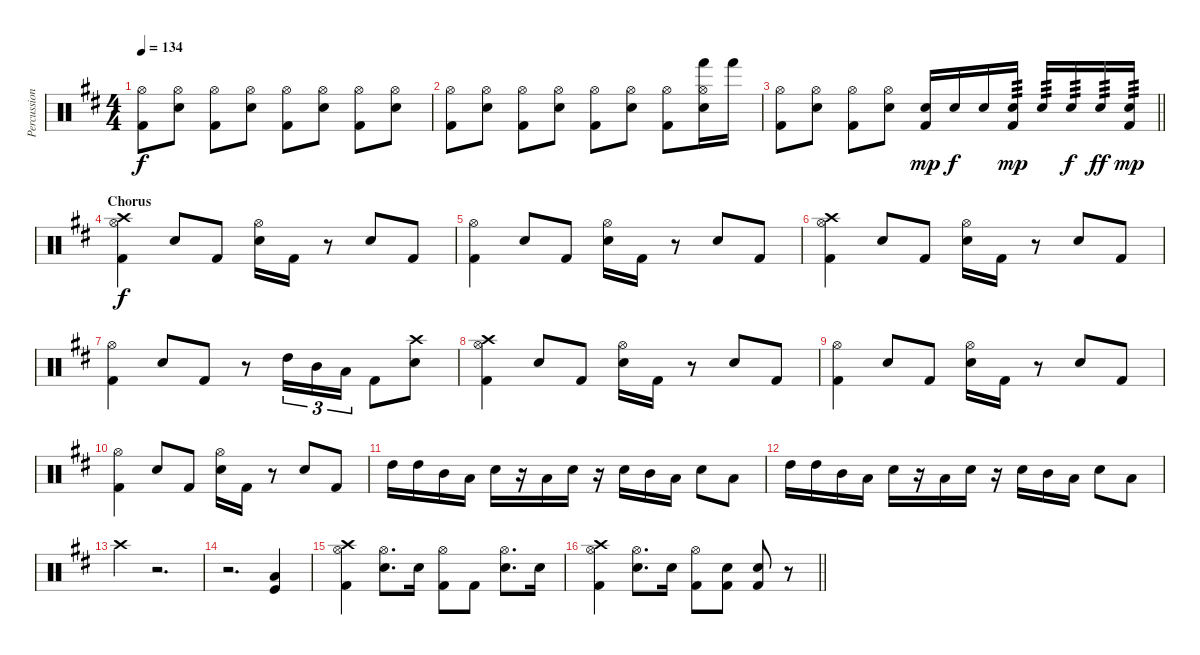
\track ("Percussion" "Percussion") {instrument percussion}
\staff {score}
\articulation defaults
\ts (4 4)
\tempo 134
\clef neutral
\ks bminor
("Hi-Hat (open)" "Kick (hit) 2").8{dy f} ("Hi-Hat (open)" "Snare (hit) 2").8 ("Hi-Hat (open)" "Kick (hit) 2").8 ("Hi-Hat (open)" "Snare (hit) 2").8 ("Hi-Hat (open)" "Kick (hit) 2").8 ("Hi-Hat (open)" "Snare (hit) 2").8 ("Hi-Hat (open)" "Kick (hit) 2").8 ("Hi-Hat (open)" "Snare (hit) 2").8 |
("Hi-Hat (open)" "Kick (hit) 2").8 ("Hi-Hat (open)" "Snare (hit) 2").8 ("Hi-Hat (open)" "Kick (hit) 2").8 ("Hi-Hat (open)" "Snare (hit) 2").8 ("Hi-Hat (open)" "Kick (hit) 2").8 ("Hi-Hat (open)" "Snare (hit) 2").8 ("Hi-Hat (open)" "Kick (hit) 2").8 ("Hand (hit)" "Hi-Hat (open)" "Snare (hit) 2").16 "Hand (hit)".16 |
\barLineRight lightlight
("Hi-Hat (open)" "Kick (hit) 2").8 ("Hi-Hat (open)" "Snare (hit) 2").8 ("Hi-Hat (open)" "Kick (hit) 2").8 ("Hi-Hat (open)" "Snare (hit) 2").8 ("Snare (hit) 2" "Kick (hit) 2").16{dy mp} "Snare (hit) 2".16{dy f} "Snare (hit) 2".16 ("Snare (hit) 2" "Kick (hit) 2").16{tp 3 dy mp} "Snare (hit) 2".16{tp 3} "Snare (hit) 2".16{tp 3 dy f} "Snare (hit) 2".16{tp 3 dy ff} ("Snare (hit) 2" "Kick (hit) 2").16{tp 3 dy mp} |
\section ("" "Chorus")
("Crash high (hit)" "Hi-Hat (open)" "Kick (hit) 2").4{dy f} "Snare (hit) 2".8 "Kick (hit) 2".8 ("Hi-Hat (open)" "Snare (hit) 2").16 "Kick (hit) 2".16 r.8 "Snare (hit) 2".8 "Kick (hit) 2".8 |
("Hi-Hat (open)" "Kick (hit) 2").4 "Snare (hit) 2".8 "Kick (hit) 2".8 ("Hi-Hat (open)" "Snare (hit) 2").16 "Kick (hit) 2".16 r.8 "Snare (hit) 2".8 "Kick (hit) 2".8 |
("Crash high (hit)" "Hi-Hat (open)" "Kick (hit) 2").4 "Snare (hit) 2".8 "Kick (hit) 2".8 ("Hi-Hat (open)" "Snare (hit) 2").16 "Kick (hit) 2".16 r.8 "Snare (hit) 2".8 "Kick (hit) 2".8 |
("Hi-Hat (open)" "Kick (hit) 2").4 "Snare (hit) 2".8 "Kick (hit) 2".8 r.8 "High Tom (hit)".16{tu (3 2)} "Mid Tom (hit)".16{tu (3 2)} "Low Tom (hit)".16{tu (3 2)} "Kick (hit) 2".8 ("Crash high (hit)" "Snare (hit) 2").8 |
("Crash high (hit)" "Hi-Hat (open)" "Kick (hit) 2").4 "Snare (hit) 2".8 "Kick (hit) 2".8 ("Hi-Hat (open)" "Snare (hit) 2").16 "Kick (hit) 2".16 r.8 "Snare (hit) 2".8 "Kick (hit) 2".8 |
("Hi-Hat (open)" "Kick (hit) 2").4 "Snare (hit) 2".8 "Kick (hit) 2".8 ("Hi-Hat (open)" "Snare (hit) 2").16 "Kick (hit) 2".16 r.8 "Snare (hit) 2".8 "Kick (hit) 2".8 |
("Hi-Hat (open)" "Kick (hit) 2").4 "Snare (hit) 2".8 "Kick (hit) 2".8 ("Hi-Hat (open)" "Snare (hit) 2").16 "Kick (hit) 2".16 r.8 "Snare (hit) 2".8 "Kick (hit) 2".8 |
"High Tom (hit)".16 "High Tom (hit)".16 "Mid Tom (hit)".16 "Low Tom (hit)".16 "Snare (hit) 2".16 r.16 "Low Tom (hit)".16 "Snare (hit) 2".16 r.16 "Snare (hit) 2".16 "Mid Tom (hit)".16 "Low Tom (hit)".16 "Snare (hit) 2".8 "Low Tom (hit)".8 |
"High Tom (hit)".16 "High Tom (hit)".16 "Mid Tom (hit)".16 "Low Tom (hit)".16 "Snare (hit) 2".16 r.16 "Low Tom (hit)".16 "Snare (hit) 2".16 r.16 "Snare (hit) 2".16 "Mid Tom (hit)".16 "Low Tom (hit)".16 "Snare (hit) 2".8 "Low Tom (hit)".8 |
"Crash high (hit)".4 r.2{d} |
r.2{d} ("Low Tom (hit)" "Kick (hit)").4 |
("Crash high (hit)" "Hi-Hat (open)" "Kick (hit) 2").4 ("Hi-Hat (open)" "Snare (hit) 2").8{d} "Snare (hit) 2".16 ("Hi-Hat (open)" "Kick (hit) 2").8 "Kick (hit) 2".8 ("Hi-Hat (open)" "Snare (hit) 2").8{d} "Snare (hit) 2".16 |
\barLineRight lightlight
("Crash high (hit)" "Hi-Hat (open)" "Kick (hit) 2").4 ("Hi-Hat (open)" "Snare (hit) 2").8{d} "Snare (hit) 2".16 ("Hi-Hat (open)" "Kick (hit) 2").8 ("Electric Snare (hit)" "Kick (hit) 2").8 ("Electric Snare (hit)" "Kick (hit) 2").8 r.8
